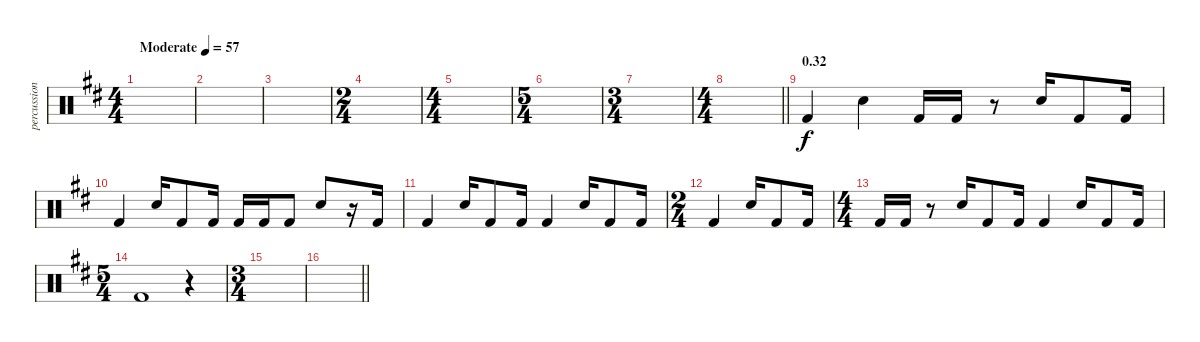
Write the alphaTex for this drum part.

\track ("percussion" "percussion") {instrument percussion}
\staff {score}
\articulation defaults
\ts (4 4)
\tempo (57 "Moderate")
\clef neutral
\ks d
|
|
|
\ts (2 4)
|
\ts (4 4)
|
\ts (5 4)
|
\ts (3 4)
|
\ts (4 4)
\barLineRight lightlight
|
\section ("" "0.32")
"Kick (hit) 2".4 "Electric Snare (hit)".4 "Kick (hit) 2".16 "Kick (hit) 2".16 r.8 "Electric Snare (hit)".16 "Kick (hit) 2".8 "Kick (hit) 2".16 |
"Kick (hit) 2".4 "Electric Snare (hit)".16 "Kick (hit) 2".8 "Kick (hit) 2".16 "Kick (hit) 2".16 "Kick (hit) 2".16 "Kick (hit) 2".8 "Electric Snare (hit)".8 r.16 "Kick (hit) 2".16 |
"Kick (hit) 2".4 "Electric Snare (hit)".16 "Kick (hit) 2".8 "Kick (hit) 2".16 "Kick (hit) 2".4 "Electric Snare (hit)".16 "Kick (hit) 2".8 "Kick (hit) 2".16 |
\ts (2 4)
"Kick (hit) 2".4 "Electric Snare (hit)".16 "Kick (hit) 2".8 "Kick (hit) 2".16 |
\ts (4 4)
"Kick (hit) 2".16 "Kick (hit) 2".16 r.8 "Electric Snare (hit)".16 "Kick (hit) 2".8 "Kick (hit) 2".16 "Kick (hit) 2".4 "Electric Snare (hit)".16 "Kick (hit) 2".8 "Kick (hit) 2".16 |
\ts (5 4)
"Kick (hit) 2".1 r.4 |
\ts (3 4)
|
\barLineRight lightlight
